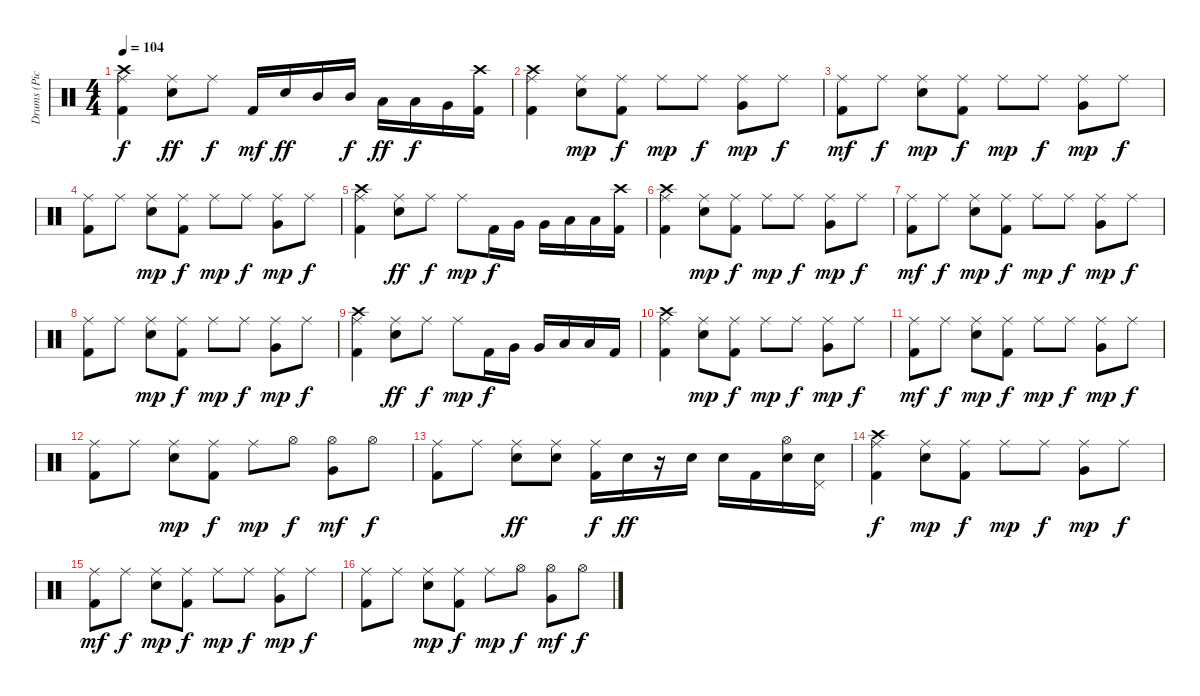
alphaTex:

\track ("Drums (Pick Whiters)" "Drums (Pic") {instrument percussion}
\staff {score}
\articulation defaults
\ts (4 4)
\tempo 104
\clef neutral
\ks c
("Ride (middle)" "Crash high (hit)" "Kick (hit) 2").4{dy f} ("Ride (middle)" "Snare (hit) 2").8{dy ff} "Ride (middle)".8{dy f} "Kick (hit) 2".16{dy mf} "Snare (hit) 2".16{dy ff} "Mid Tom (hit)".16 "Mid Tom (hit)".16{dy f} "Low Tom (hit)".16{dy ff} "Low Tom (hit)".16{dy f} "Very Low Tom (hit)".16 ("Kick (hit) 2" "Crash high (hit)").16 |
("Ride (middle)" "Crash high (hit)" "Kick (hit) 2").4 ("Snare (hit) 2" "Ride (middle)").8{dy mp} ("Kick (hit) 2" "Ride (middle)").8{dy f} "Ride (middle)".8{dy mp} "Ride (middle)".8{dy f} ("Very Low Tom (hit)" "Ride (middle)").8{dy mp} "Ride (middle)".8{dy f} |
("Ride (middle)" "Kick (hit) 2").8{dy mf} "Ride (middle)".8{dy f} ("Snare (hit) 2" "Ride (middle)").8{dy mp} ("Kick (hit) 2" "Ride (middle)").8{dy f} "Ride (middle)".8{dy mp} "Ride (middle)".8{dy f} ("Very Low Tom (hit)" "Ride (middle)").8{dy mp} "Ride (middle)".8{dy f} |
("Ride (middle)" "Kick (hit) 2").8 "Ride (middle)".8 ("Snare (hit) 2" "Ride (middle)").8{dy mp} ("Kick (hit) 2" "Ride (middle)").8{dy f} "Ride (middle)".8{dy mp} "Ride (middle)".8{dy f} ("Very Low Tom (hit)" "Ride (middle)").8{dy mp} "Ride (middle)".8{dy f} |
("Ride (middle)" "Crash high (hit)" "Kick (hit) 2").4 ("Ride (middle)" "Snare (hit) 2").8{dy ff} "Ride (middle)".8{dy f} "Ride (middle)".8{dy mp} "Kick (hit) 2".16{dy f} "Very Low Tom (hit)".16 "Very Low Tom (hit)".16 "Low Floor Tom (hit)".16 "Low Floor Tom (hit)".16 ("Kick (hit) 2" "Crash high (hit)").16 |
("Ride (middle)" "Crash high (hit)" "Kick (hit) 2").4 ("Snare (hit) 2" "Ride (middle)").8{dy mp} ("Kick (hit) 2" "Ride (middle)").8{dy f} "Ride (middle)".8{dy mp} "Ride (middle)".8{dy f} ("Very Low Tom (hit)" "Ride (middle)").8{dy mp} "Ride (middle)".8{dy f} |
("Ride (middle)" "Kick (hit) 2").8{dy mf} "Ride (middle)".8{dy f} ("Snare (hit) 2" "Ride (middle)").8{dy mp} ("Kick (hit) 2" "Ride (middle)").8{dy f} "Ride (middle)".8{dy mp} "Ride (middle)".8{dy f} ("Very Low Tom (hit)" "Ride (middle)").8{dy mp} "Ride (middle)".8{dy f} |
("Ride (middle)" "Kick (hit) 2").8 "Ride (middle)".8 ("Snare (hit) 2" "Ride (middle)").8{dy mp} ("Kick (hit) 2" "Ride (middle)").8{dy f} "Ride (middle)".8{dy mp} "Ride (middle)".8{dy f} ("Very Low Tom (hit)" "Ride (middle)").8{dy mp} "Ride (middle)".8{dy f} |
("Ride (middle)" "Crash high (hit)" "Kick (hit) 2").4 ("Ride (middle)" "Snare (hit) 2").8{dy ff} "Ride (middle)".8{dy f} "Ride (middle)".8{dy mp} "Kick (hit) 2".16{dy f} "Very Low Tom (hit)".16 "Very Low Tom (hit)".16 "Low Floor Tom (hit)".16 "Low Floor Tom (hit)".16 "Kick (hit) 2".16 |
("Ride (middle)" "Crash high (hit)" "Kick (hit) 2").4 ("Snare (hit) 2" "Ride (middle)").8{dy mp} ("Kick (hit) 2" "Ride (middle)").8{dy f} "Ride (middle)".8{dy mp} "Ride (middle)".8{dy f} ("Very Low Tom (hit)" "Ride (middle)").8{dy mp} "Ride (middle)".8{dy f} |
("Ride (middle)" "Kick (hit) 2").8{dy mf} "Ride (middle)".8{dy f} ("Snare (hit) 2" "Ride (middle)").8{dy mp} ("Kick (hit) 2" "Ride (middle)").8{dy f} "Ride (middle)".8{dy mp} "Ride (middle)".8{dy f} ("Very Low Tom (hit)" "Ride (middle)").8{dy mp} "Ride (middle)".8{dy f} |
("Ride (middle)" "Kick (hit) 2").8 "Ride (middle)".8 ("Snare (hit) 2" "Ride (middle)").8{dy mp} ("Kick (hit) 2" "Ride (middle)").8{dy f} "Ride (middle)".8{dy mp} "Hi-Hat (open)".8{dy f} ("Very Low Tom (hit)" "Hi-Hat (open)").8{dy mf} "Hi-Hat (open)".8{dy f} |
("Ride (middle)" "Kick (hit) 2").8 "Ride (middle)".8 ("Snare (hit) 2" "Ride (middle)").8{dy ff} ("Snare (hit) 2" "Ride (middle)").8 ("Kick (hit) 2" "Ride (middle)").16{dy f} "Snare (hit) 2".16{dy ff} r.16 "Snare (hit) 2".16 "Snare (hit) 2".16 "Kick (hit) 2".16 ("Snare (hit) 2" "Hi-Hat (open)").16 ("Snare (hit) 2" "Pedal Hi-Hat (hit)").16 |
("Ride (middle)" "Crash high (hit)" "Kick (hit) 2").4{dy f} ("Snare (hit) 2" "Ride (middle)").8{dy mp} ("Kick (hit) 2" "Ride (middle)").8{dy f} "Ride (middle)".8{dy mp} "Ride (middle)".8{dy f} ("Very Low Tom (hit)" "Ride (middle)").8{dy mp} "Ride (middle)".8{dy f} |
("Ride (middle)" "Kick (hit) 2").8{dy mf} "Ride (middle)".8{dy f} ("Snare (hit) 2" "Ride (middle)").8{dy mp} ("Kick (hit) 2" "Ride (middle)").8{dy f} "Ride (middle)".8{dy mp} "Ride (middle)".8{dy f} ("Very Low Tom (hit)" "Ride (middle)").8{dy mp} "Ride (middle)".8{dy f} |
("Ride (middle)" "Kick (hit) 2").8 "Ride (middle)".8 ("Snare (hit) 2" "Ride (middle)").8{dy mp} ("Kick (hit) 2" "Ride (middle)").8{dy f} "Ride (middle)".8{dy mp} "Hi-Hat (open)".8{dy f} ("Very Low Tom (hit)" "Hi-Hat (open)").8{dy mf} "Hi-Hat (open)".8{dy f}
